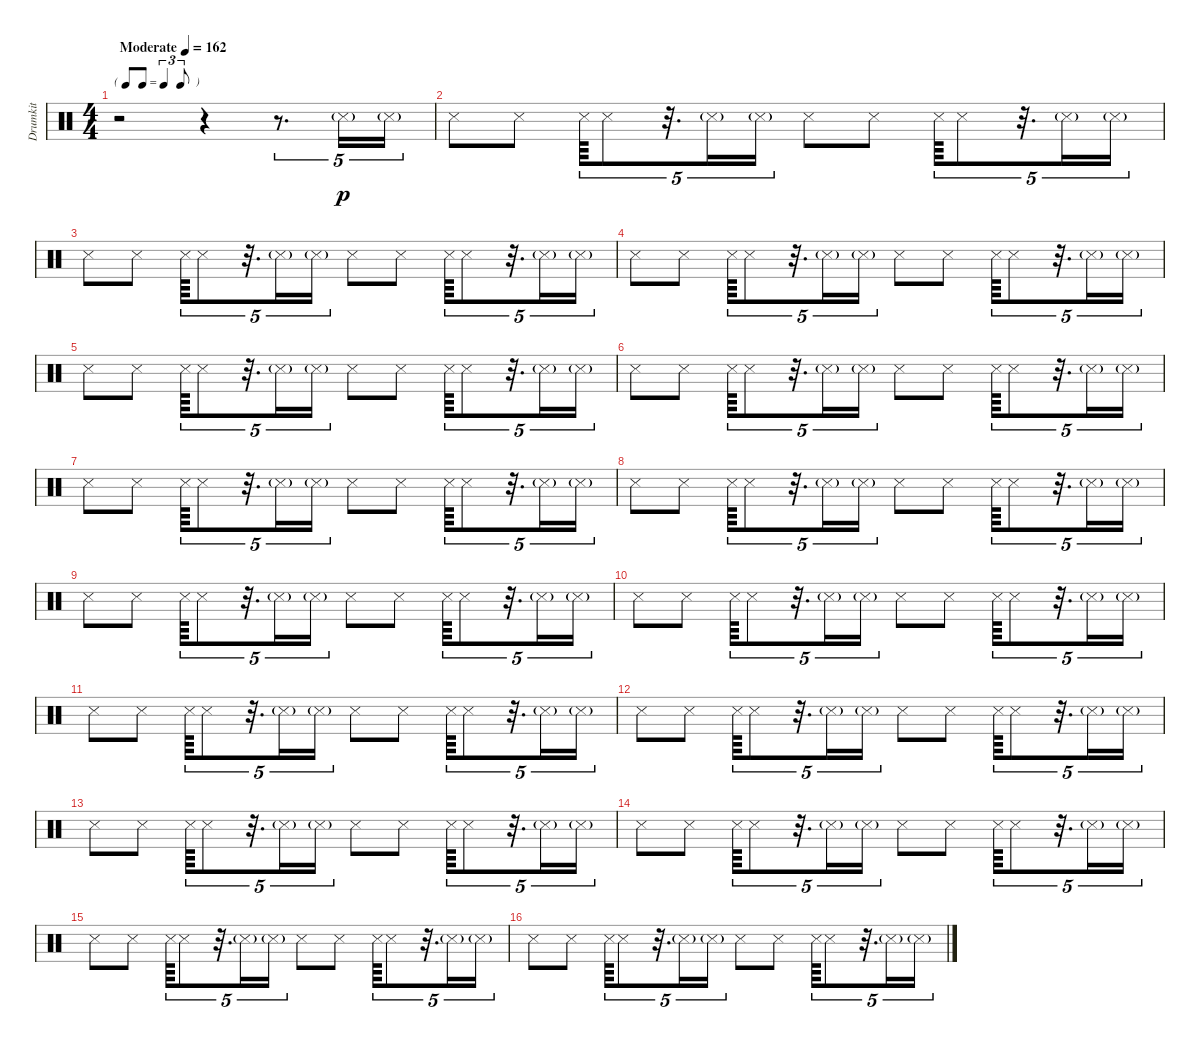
\track ("Drumkit" "Drumkit") {instrument percussion}
\staff {score}
\articulation defaults
\ts (4 4)
\tf triplet8th
\tempo (162 "Moderate")
\clef neutral
\ks c
r.2{dy p} r.4 r.8{d tu (5 4)} "Snare (side stick) 3"{g}.16{tu (5 4)} "Snare (side stick) 3"{g}.16{tu (5 4)} |
"Snare (side stick) 3".8 "Snare (side stick) 3".8 "Snare (side stick) 3".64{tu (5 4)} "Snare (side stick) 3".8{tu (5 4)} r.32{d tu (5 4)} "Snare (side stick) 3"{g}.16{tu (5 4)} "Snare (side stick) 3"{g}.16{tu (5 4)} "Snare (side stick) 3".8 "Snare (side stick) 3".8 "Snare (side stick) 3".64{tu (5 4)} "Snare (side stick) 3".8{tu (5 4)} r.32{d tu (5 4)} "Snare (side stick) 3"{g}.16{tu (5 4)} "Snare (side stick) 3"{g}.16{tu (5 4)} |
"Snare (side stick) 3".8 "Snare (side stick) 3".8 "Snare (side stick) 3".64{tu (5 4)} "Snare (side stick) 3".8{tu (5 4)} r.32{d tu (5 4)} "Snare (side stick) 3"{g}.16{tu (5 4)} "Snare (side stick) 3"{g}.16{tu (5 4)} "Snare (side stick) 3".8 "Snare (side stick) 3".8 "Snare (side stick) 3".64{tu (5 4)} "Snare (side stick) 3".8{tu (5 4)} r.32{d tu (5 4)} "Snare (side stick) 3"{g}.16{tu (5 4)} "Snare (side stick) 3"{g}.16{tu (5 4)} |
"Snare (side stick) 3".8 "Snare (side stick) 3".8 "Snare (side stick) 3".64{tu (5 4)} "Snare (side stick) 3".8{tu (5 4)} r.32{d tu (5 4)} "Snare (side stick) 3"{g}.16{tu (5 4)} "Snare (side stick) 3"{g}.16{tu (5 4)} "Snare (side stick) 3".8 "Snare (side stick) 3".8 "Snare (side stick) 3".64{tu (5 4)} "Snare (side stick) 3".8{tu (5 4)} r.32{d tu (5 4)} "Snare (side stick) 3"{g}.16{tu (5 4)} "Snare (side stick) 3"{g}.16{tu (5 4)} |
"Snare (side stick) 3".8 "Snare (side stick) 3".8 "Snare (side stick) 3".64{tu (5 4)} "Snare (side stick) 3".8{tu (5 4)} r.32{d tu (5 4)} "Snare (side stick) 3"{g}.16{tu (5 4)} "Snare (side stick) 3"{g}.16{tu (5 4)} "Snare (side stick) 3".8 "Snare (side stick) 3".8 "Snare (side stick) 3".64{tu (5 4)} "Snare (side stick) 3".8{tu (5 4)} r.32{d tu (5 4)} "Snare (side stick) 3"{g}.16{tu (5 4)} "Snare (side stick) 3"{g}.16{tu (5 4)} |
"Snare (side stick) 3".8 "Snare (side stick) 3".8 "Snare (side stick) 3".64{tu (5 4)} "Snare (side stick) 3".8{tu (5 4)} r.32{d tu (5 4)} "Snare (side stick) 3"{g}.16{tu (5 4)} "Snare (side stick) 3"{g}.16{tu (5 4)} "Snare (side stick) 3".8 "Snare (side stick) 3".8 "Snare (side stick) 3".64{tu (5 4)} "Snare (side stick) 3".8{tu (5 4)} r.32{d tu (5 4)} "Snare (side stick) 3"{g}.16{tu (5 4)} "Snare (side stick) 3"{g}.16{tu (5 4)} |
"Snare (side stick) 3".8 "Snare (side stick) 3".8 "Snare (side stick) 3".64{tu (5 4)} "Snare (side stick) 3".8{tu (5 4)} r.32{d tu (5 4)} "Snare (side stick) 3"{g}.16{tu (5 4)} "Snare (side stick) 3"{g}.16{tu (5 4)} "Snare (side stick) 3".8 "Snare (side stick) 3".8 "Snare (side stick) 3".64{tu (5 4)} "Snare (side stick) 3".8{tu (5 4)} r.32{d tu (5 4)} "Snare (side stick) 3"{g}.16{tu (5 4)} "Snare (side stick) 3"{g}.16{tu (5 4)} |
"Snare (side stick) 3".8 "Snare (side stick) 3".8 "Snare (side stick) 3".64{tu (5 4)} "Snare (side stick) 3".8{tu (5 4)} r.32{d tu (5 4)} "Snare (side stick) 3"{g}.16{tu (5 4)} "Snare (side stick) 3"{g}.16{tu (5 4)} "Snare (side stick) 3".8 "Snare (side stick) 3".8 "Snare (side stick) 3".64{tu (5 4)} "Snare (side stick) 3".8{tu (5 4)} r.32{d tu (5 4)} "Snare (side stick) 3"{g}.16{tu (5 4)} "Snare (side stick) 3"{g}.16{tu (5 4)} |
"Snare (side stick) 3".8 "Snare (side stick) 3".8 "Snare (side stick) 3".64{tu (5 4)} "Snare (side stick) 3".8{tu (5 4)} r.32{d tu (5 4)} "Snare (side stick) 3"{g}.16{tu (5 4)} "Snare (side stick) 3"{g}.16{tu (5 4)} "Snare (side stick) 3".8 "Snare (side stick) 3".8 "Snare (side stick) 3".64{tu (5 4)} "Snare (side stick) 3".8{tu (5 4)} r.32{d tu (5 4)} "Snare (side stick) 3"{g}.16{tu (5 4)} "Snare (side stick) 3"{g}.16{tu (5 4)} |
"Snare (side stick) 3".8 "Snare (side stick) 3".8 "Snare (side stick) 3".64{tu (5 4)} "Snare (side stick) 3".8{tu (5 4)} r.32{d tu (5 4)} "Snare (side stick) 3"{g}.16{tu (5 4)} "Snare (side stick) 3"{g}.16{tu (5 4)} "Snare (side stick) 3".8 "Snare (side stick) 3".8 "Snare (side stick) 3".64{tu (5 4)} "Snare (side stick) 3".8{tu (5 4)} r.32{d tu (5 4)} "Snare (side stick) 3"{g}.16{tu (5 4)} "Snare (side stick) 3"{g}.16{tu (5 4)} |
"Snare (side stick) 3".8 "Snare (side stick) 3".8 "Snare (side stick) 3".64{tu (5 4)} "Snare (side stick) 3".8{tu (5 4)} r.32{d tu (5 4)} "Snare (side stick) 3"{g}.16{tu (5 4)} "Snare (side stick) 3"{g}.16{tu (5 4)} "Snare (side stick) 3".8 "Snare (side stick) 3".8 "Snare (side stick) 3".64{tu (5 4)} "Snare (side stick) 3".8{tu (5 4)} r.32{d tu (5 4)} "Snare (side stick) 3"{g}.16{tu (5 4)} "Snare (side stick) 3"{g}.16{tu (5 4)} |
"Snare (side stick) 3".8 "Snare (side stick) 3".8 "Snare (side stick) 3".64{tu (5 4)} "Snare (side stick) 3".8{tu (5 4)} r.32{d tu (5 4)} "Snare (side stick) 3"{g}.16{tu (5 4)} "Snare (side stick) 3"{g}.16{tu (5 4)} "Snare (side stick) 3".8 "Snare (side stick) 3".8 "Snare (side stick) 3".64{tu (5 4)} "Snare (side stick) 3".8{tu (5 4)} r.32{d tu (5 4)} "Snare (side stick) 3"{g}.16{tu (5 4)} "Snare (side stick) 3"{g}.16{tu (5 4)} |
"Snare (side stick) 3".8 "Snare (side stick) 3".8 "Snare (side stick) 3".64{tu (5 4)} "Snare (side stick) 3".8{tu (5 4)} r.32{d tu (5 4)} "Snare (side stick) 3"{g}.16{tu (5 4)} "Snare (side stick) 3"{g}.16{tu (5 4)} "Snare (side stick) 3".8 "Snare (side stick) 3".8 "Snare (side stick) 3".64{tu (5 4)} "Snare (side stick) 3".8{tu (5 4)} r.32{d tu (5 4)} "Snare (side stick) 3"{g}.16{tu (5 4)} "Snare (side stick) 3"{g}.16{tu (5 4)} |
"Snare (side stick) 3".8 "Snare (side stick) 3".8 "Snare (side stick) 3".64{tu (5 4)} "Snare (side stick) 3".8{tu (5 4)} r.32{d tu (5 4)} "Snare (side stick) 3"{g}.16{tu (5 4)} "Snare (side stick) 3"{g}.16{tu (5 4)} "Snare (side stick) 3".8 "Snare (side stick) 3".8 "Snare (side stick) 3".64{tu (5 4)} "Snare (side stick) 3".8{tu (5 4)} r.32{d tu (5 4)} "Snare (side stick) 3"{g}.16{tu (5 4)} "Snare (side stick) 3"{g}.16{tu (5 4)} |
"Snare (side stick) 3".8 "Snare (side stick) 3".8 "Snare (side stick) 3".64{tu (5 4)} "Snare (side stick) 3".8{tu (5 4)} r.32{d tu (5 4)} "Snare (side stick) 3"{g}.16{tu (5 4)} "Snare (side stick) 3"{g}.16{tu (5 4)} "Snare (side stick) 3".8 "Snare (side stick) 3".8 "Snare (side stick) 3".64{tu (5 4)} "Snare (side stick) 3".8{tu (5 4)} r.32{d tu (5 4)} "Snare (side stick) 3"{g}.16{tu (5 4)} "Snare (side stick) 3"{g}.16{tu (5 4)} |
"Snare (side stick) 3".8 "Snare (side stick) 3".8 "Snare (side stick) 3".64{tu (5 4)} "Snare (side stick) 3".8{tu (5 4)} r.32{d tu (5 4)} "Snare (side stick) 3"{g}.16{tu (5 4)} "Snare (side stick) 3"{g}.16{tu (5 4)} "Snare (side stick) 3".8 "Snare (side stick) 3".8 "Snare (side stick) 3".64{tu (5 4)} "Snare (side stick) 3".8{tu (5 4)} r.32{d tu (5 4)} "Snare (side stick) 3"{g}.16{tu (5 4)} "Snare (side stick) 3"{g}.16{tu (5 4)}
